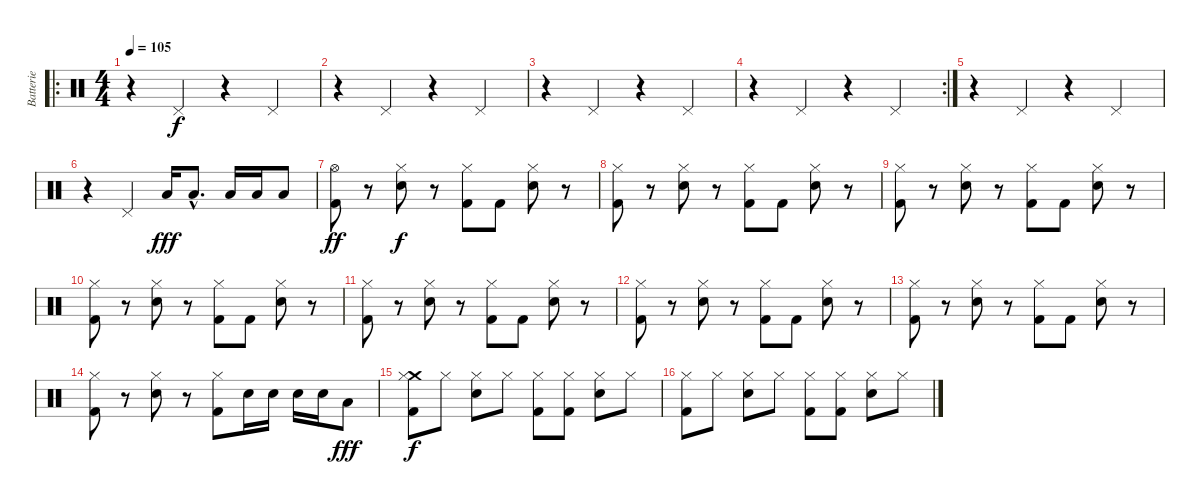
\track ("Batterie" "Batterie") {instrument percussion}
\staff {score}
\articulation defaults
\ro
\ts (4 4)
\tempo 105
\clef neutral
\ks c
r.4{dy f} "Pedal Hi-Hat (hit)".4 r.4 "Pedal Hi-Hat (hit)".4 |
r.4 "Pedal Hi-Hat (hit)".4 r.4 "Pedal Hi-Hat (hit)".4 |
r.4 "Pedal Hi-Hat (hit)".4 r.4 "Pedal Hi-Hat (hit)".4 |
\rc 2
r.4 "Pedal Hi-Hat (hit)".4 r.4 "Pedal Hi-Hat (hit)".4 |
r.4 "Pedal Hi-Hat (hit)".4 r.4 "Pedal Hi-Hat (hit)".4 |
r.4 "Pedal Hi-Hat (hit)".4 "Low Tom (hit)".16{dy fff} "Low Tom (hit)"{hac}.8{d} "Low Tom (hit)".16 "Low Tom (hit)".16 "Low Tom (hit)".8 |
("Hi-Hat (open)" "Kick (hit) 2").8{dy ff} r.8 ("Hi-Hat (closed)" "Electric Snare (hit)").8{dy f} r.8 ("Hi-Hat (closed)" "Kick (hit) 2").8 "Kick (hit) 2".8 ("Hi-Hat (closed)" "Electric Snare (hit)").8 r.8 |
("Hi-Hat (closed)" "Kick (hit) 2").8 r.8 ("Hi-Hat (closed)" "Electric Snare (hit)").8 r.8 ("Hi-Hat (closed)" "Kick (hit) 2").8 "Kick (hit) 2".8 ("Hi-Hat (closed)" "Electric Snare (hit)").8 r.8 |
("Hi-Hat (closed)" "Kick (hit) 2").8 r.8 ("Hi-Hat (closed)" "Electric Snare (hit)").8 r.8 ("Hi-Hat (closed)" "Kick (hit) 2").8 "Kick (hit) 2".8 ("Hi-Hat (closed)" "Electric Snare (hit)").8 r.8 |
("Hi-Hat (closed)" "Kick (hit) 2").8 r.8 ("Hi-Hat (closed)" "Electric Snare (hit)").8 r.8 ("Hi-Hat (closed)" "Kick (hit) 2").8 "Kick (hit) 2".8 ("Hi-Hat (closed)" "Electric Snare (hit)").8 r.8 |
("Hi-Hat (closed)" "Kick (hit) 2").8 r.8 ("Hi-Hat (closed)" "Electric Snare (hit)").8 r.8 ("Hi-Hat (closed)" "Kick (hit) 2").8 "Kick (hit) 2".8 ("Hi-Hat (closed)" "Electric Snare (hit)").8 r.8 |
("Hi-Hat (closed)" "Kick (hit) 2").8 r.8 ("Hi-Hat (closed)" "Electric Snare (hit)").8 r.8 ("Hi-Hat (closed)" "Kick (hit) 2").8 "Kick (hit) 2".8 ("Hi-Hat (closed)" "Electric Snare (hit)").8 r.8 |
("Hi-Hat (closed)" "Kick (hit) 2").8 r.8 ("Hi-Hat (closed)" "Electric Snare (hit)").8 r.8 ("Hi-Hat (closed)" "Kick (hit) 2").8 "Kick (hit) 2".8 ("Hi-Hat (closed)" "Electric Snare (hit)").8 r.8 |
("Hi-Hat (closed)" "Kick (hit) 2").8 r.8 ("Hi-Hat (closed)" "Electric Snare (hit)").8 r.8 ("Hi-Hat (closed)" "Kick (hit) 2").8 "Electric Snare (hit)".16 "Electric Snare (hit)".16 "Electric Snare (hit)".16 "Electric Snare (hit)".16 "Low Tom (hit)".8{dy fff} |
("Crash medium (hit)" "Hi-Hat (closed)" "Kick (hit) 2").8{dy f} "Hi-Hat (closed)".8 ("Hi-Hat (closed)" "Electric Snare (hit)").8 "Hi-Hat (closed)".8 ("Hi-Hat (closed)" "Kick (hit) 2").8 ("Hi-Hat (closed)" "Kick (hit) 2").8 ("Hi-Hat (closed)" "Electric Snare (hit)").8 "Hi-Hat (closed)".8 |
("Hi-Hat (closed)" "Kick (hit) 2").8 "Hi-Hat (closed)".8 ("Hi-Hat (closed)" "Electric Snare (hit)").8 "Hi-Hat (closed)".8 ("Hi-Hat (closed)" "Kick (hit) 2").8 ("Hi-Hat (closed)" "Kick (hit) 2").8 ("Hi-Hat (closed)" "Electric Snare (hit)").8 "Hi-Hat (closed)".8
